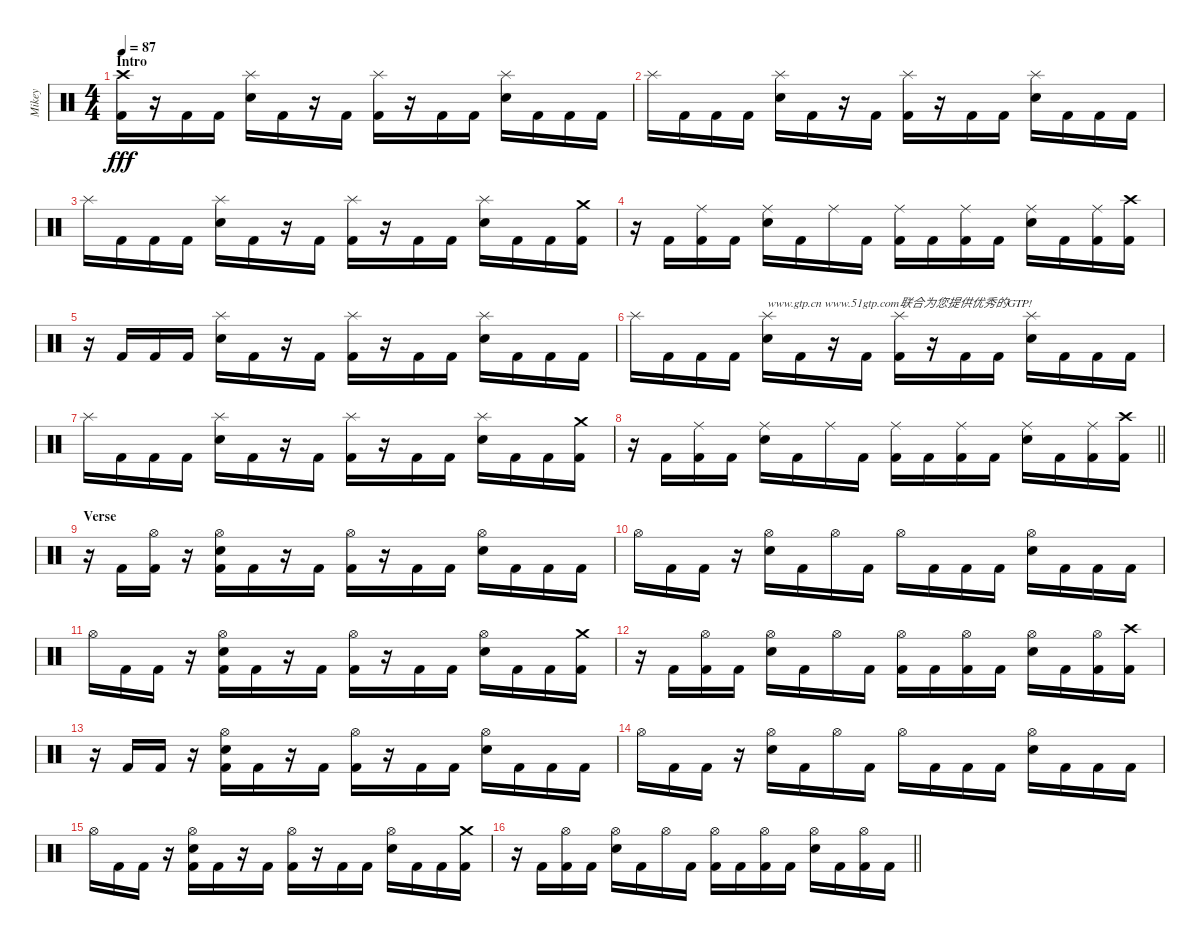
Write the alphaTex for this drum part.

\track ("Mikey" "Mikey") {instrument percussion}
\staff {score}
\articulation defaults
\ts (4 4)
\section ("" "Intro")
\tempo 87
\clef neutral
\ks c
("Crash high (hit)" "Kick (hit) 2").16{dy fff} r.16 "Kick (hit) 2".16 "Kick (hit) 2".16 ("Electric Snare (hit)" "Splash (hit)").16 "Kick (hit) 2".16 r.16 "Kick (hit) 2".16 ("Kick (hit) 2" "Splash (hit)").16 r.16 "Kick (hit) 2".16 "Kick (hit) 2".16 ("Electric Snare (hit)" "Splash (hit)").16 "Kick (hit) 2".16 "Kick (hit) 2".16 "Kick (hit) 2".16 |
"Splash (hit)".16 "Kick (hit) 2".16 "Kick (hit) 2".16 "Kick (hit) 2".16 ("Electric Snare (hit)" "Splash (hit)").16 "Kick (hit) 2".16 r.16 "Kick (hit) 2".16 ("Kick (hit) 2" "Splash (hit)").16 r.16 "Kick (hit) 2".16 "Kick (hit) 2".16 ("Electric Snare (hit)" "Splash (hit)").16 "Kick (hit) 2".16 "Kick (hit) 2".16 "Kick (hit) 2".16 |
"Splash (hit)".16 "Kick (hit) 2".16 "Kick (hit) 2".16 "Kick (hit) 2".16 ("Splash (hit)" "Electric Snare (hit)").16 "Kick (hit) 2".16 r.16 "Kick (hit) 2".16 ("Splash (hit)" "Kick (hit) 2").16 r.16 "Kick (hit) 2".16 "Kick (hit) 2".16 ("Splash (hit)" "Electric Snare (hit)").16 "Kick (hit) 2".16 "Kick (hit) 2".16 ("Crash medium (hit)" "Kick (hit) 2").16 |
r.16 "Kick (hit) 2".16 ("Kick (hit) 2" "Ride (middle)").16 "Kick (hit) 2".16 ("Electric Snare (hit)" "Ride (middle)").16 "Kick (hit) 2".16 "Ride (middle)".16 "Kick (hit) 2".16 ("Kick (hit) 2" "Ride (middle)").16 "Kick (hit) 2".16 ("Kick (hit) 2" "Ride (middle)").16 "Kick (hit) 2".16 ("Ride (middle)" "Electric Snare (hit)").16 "Kick (hit) 2".16 ("Kick (hit) 2" "Ride (middle)").16 ("Crash high (hit)" "Kick (hit) 2").16 |
r.16 "Kick (hit) 2".16 "Kick (hit) 2".16 "Kick (hit) 2".16 ("Splash (hit)" "Electric Snare (hit)").16 "Kick (hit) 2".16 r.16 "Kick (hit) 2".16 ("Kick (hit) 2" "Splash (hit)").16 r.16 "Kick (hit) 2".16 "Kick (hit) 2".16 ("Electric Snare (hit)" "Splash (hit)").16 "Kick (hit) 2".16 "Kick (hit) 2".16 "Kick (hit) 2".16 |
"Splash (hit)".16 "Kick (hit) 2".16 "Kick (hit) 2".16 "Kick (hit) 2".16 ("Electric Snare (hit)" "Splash (hit)").16{txt "www.gtp.cn www.51gtp.com联合为您提供优秀的GTP!"} "Kick (hit) 2".16 r.16 "Kick (hit) 2".16 ("Splash (hit)" "Kick (hit) 2").16 r.16 "Kick (hit) 2".16 "Kick (hit) 2".16 ("Splash (hit)" "Electric Snare (hit)").16 "Kick (hit) 2".16 "Kick (hit) 2".16 "Kick (hit) 2".16 |
"Splash (hit)".16 "Kick (hit) 2".16 "Kick (hit) 2".16 "Kick (hit) 2".16 ("Splash (hit)" "Electric Snare (hit)").16 "Kick (hit) 2".16 r.16 "Kick (hit) 2".16 ("Splash (hit)" "Kick (hit) 2").16 r.16 "Kick (hit) 2".16 "Kick (hit) 2".16 ("Electric Snare (hit)" "Splash (hit)").16 "Kick (hit) 2".16 "Kick (hit) 2".16 ("Crash medium (hit)" "Kick (hit) 2").16 |
\barLineRight lightlight
r.16 "Kick (hit) 2".16 ("Ride (middle)" "Kick (hit) 2").16 "Kick (hit) 2".16 ("Ride (middle)" "Electric Snare (hit)").16 "Kick (hit) 2".16 "Ride (middle)".16 "Kick (hit) 2".16 ("Ride (middle)" "Kick (hit) 2").16 "Kick (hit) 2".16 ("Kick (hit) 2" "Ride (middle)").16 "Kick (hit) 2".16 ("Ride (middle)" "Electric Snare (hit)").16 "Kick (hit) 2".16 ("Kick (hit) 2" "Ride (middle)").16 ("Kick (hit) 2" "Crash high (hit)").16 |
\section ("" "Verse")
r.16 "Kick (hit) 2".16 ("Hi-Hat (open)" "Kick (hit) 2").16 r.16 ("Hi-Hat (open)" "Kick (hit) 2" "Electric Snare (hit)").16 "Kick (hit) 2".16 r.16 "Kick (hit) 2".16 ("Hi-Hat (open)" "Kick (hit) 2").16 r.16 "Kick (hit) 2".16 "Kick (hit) 2".16 ("Hi-Hat (open)" "Electric Snare (hit)").16 "Kick (hit) 2".16 "Kick (hit) 2".16 "Kick (hit) 2".16 |
"Hi-Hat (open)".16 "Kick (hit) 2".16 "Kick (hit) 2".16 r.16 ("Electric Snare (hit)" "Hi-Hat (open)").16 "Kick (hit) 2".16 "Hi-Hat (open)".16 "Kick (hit) 2".16 "Hi-Hat (open)".16 "Kick (hit) 2".16 "Kick (hit) 2".16 "Kick (hit) 2".16 ("Electric Snare (hit)" "Hi-Hat (open)").16 "Kick (hit) 2".16 "Kick (hit) 2".16 "Kick (hit) 2".16 |
"Hi-Hat (open)".16 "Kick (hit) 2".16 "Kick (hit) 2".16 r.16 ("Hi-Hat (open)" "Kick (hit) 2" "Electric Snare (hit)").16 "Kick (hit) 2".16 r.16 "Kick (hit) 2".16 ("Hi-Hat (open)" "Kick (hit) 2").16 r.16 "Kick (hit) 2".16 "Kick (hit) 2".16 ("Hi-Hat (open)" "Electric Snare (hit)").16 "Kick (hit) 2".16 "Kick (hit) 2".16 ("Crash medium (hit)" "Kick (hit) 2").16 |
r.16 "Kick (hit) 2".16 ("Kick (hit) 2" "Hi-Hat (open)").16 "Kick (hit) 2".16 ("Electric Snare (hit)" "Hi-Hat (open)").16 "Kick (hit) 2".16 "Hi-Hat (open)".16 "Kick (hit) 2".16 ("Kick (hit) 2" "Hi-Hat (open)").16 "Kick (hit) 2".16 ("Kick (hit) 2" "Hi-Hat (open)").16 "Kick (hit) 2".16 ("Electric Snare (hit)" "Hi-Hat (open)").16 "Kick (hit) 2".16 ("Kick (hit) 2" "Hi-Hat (open)").16 ("Crash high (hit)" "Kick (hit) 2").16 |
r.16 "Kick (hit) 2".16 "Kick (hit) 2".16 r.16 ("Hi-Hat (open)" "Kick (hit) 2" "Electric Snare (hit)").16 "Kick (hit) 2".16 r.16 "Kick (hit) 2".16 ("Hi-Hat (open)" "Kick (hit) 2").16 r.16 "Kick (hit) 2".16 "Kick (hit) 2".16 ("Hi-Hat (open)" "Electric Snare (hit)").16 "Kick (hit) 2".16 "Kick (hit) 2".16 "Kick (hit) 2".16 |
"Hi-Hat (open)".16 "Kick (hit) 2".16 "Kick (hit) 2".16 r.16 ("Electric Snare (hit)" "Hi-Hat (open)").16 "Kick (hit) 2".16 "Hi-Hat (open)".16 "Kick (hit) 2".16 "Hi-Hat (open)".16 "Kick (hit) 2".16 "Kick (hit) 2".16 "Kick (hit) 2".16 ("Electric Snare (hit)" "Hi-Hat (open)").16 "Kick (hit) 2".16 "Kick (hit) 2".16 "Kick (hit) 2".16 |
"Hi-Hat (open)".16 "Kick (hit) 2".16 "Kick (hit) 2".16 r.16 ("Hi-Hat (open)" "Kick (hit) 2" "Electric Snare (hit)").16 "Kick (hit) 2".16 r.16 "Kick (hit) 2".16 ("Hi-Hat (open)" "Kick (hit) 2").16 r.16 "Kick (hit) 2".16 "Kick (hit) 2".16 ("Hi-Hat (open)" "Electric Snare (hit)").16 "Kick (hit) 2".16 "Kick (hit) 2".16 ("Crash medium (hit)" "Kick (hit) 2").16 |
\barLineRight lightlight
r.16 "Kick (hit) 2".16 ("Hi-Hat (open)" "Kick (hit) 2").16 "Kick (hit) 2".16 ("Hi-Hat (open)" "Electric Snare (hit)").16 "Kick (hit) 2".16 "Hi-Hat (open)".16 "Kick (hit) 2".16 ("Kick (hit) 2" "Hi-Hat (open)").16 "Kick (hit) 2".16 ("Kick (hit) 2" "Hi-Hat (open)").16 "Kick (hit) 2".16 ("Hi-Hat (open)" "Electric Snare (hit)").16 "Kick (hit) 2".16 ("Kick (hit) 2" "Hi-Hat (open)").16 "Kick (hit) 2".16
